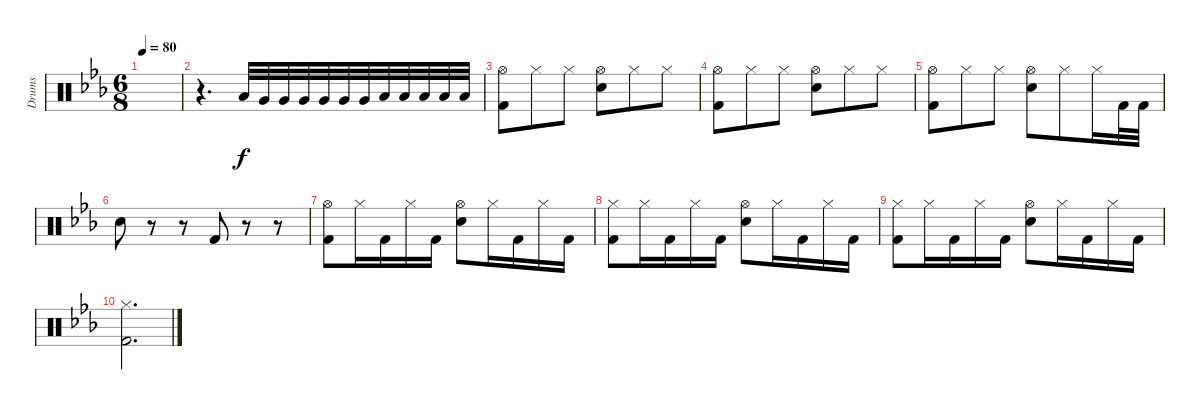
\track ("Drums" "Drums") {instrument percussion}
\staff {score}
\articulation defaults
\ts (6 8)
\tempo 80
\clef neutral
\ks cminor
|
r.4{d} "Low Tom (hit)".32 "Very Low Tom (hit)".32 "Very Low Tom (hit)".32 "Very Low Tom (hit)".32 "Very Low Tom (hit)".32 "Very Low Tom (hit)".32 "Very Low Tom (hit)".32 "Low Tom (hit)".32 "Low Tom (hit)".32 "Low Tom (hit)".32 "Low Tom (hit)".32 "Low Tom (hit)".32 |
("Hi-Hat (open)" "Kick (hit) 2").8 "Hi-Hat (closed)".8 "Hi-Hat (closed)".8 ("Hi-Hat (open)" "Snare (hit) 2").8 "Hi-Hat (closed)".8 "Hi-Hat (closed)".8 |
("Hi-Hat (open)" "Kick (hit) 2").8 "Hi-Hat (closed)".8 "Hi-Hat (closed)".8 ("Hi-Hat (open)" "Snare (hit) 2").8 "Hi-Hat (closed)".8 "Hi-Hat (closed)".8 |
("Hi-Hat (open)" "Kick (hit) 2").8 "Hi-Hat (closed)".8 "Hi-Hat (closed)".8 ("Hi-Hat (open)" "Snare (hit) 2").8 "Hi-Hat (closed)".8 "Hi-Hat (closed)".16 "Kick (hit) 2".32 "Kick (hit) 2".32 |
"Snare (hit) 2".8 r.8 r.8 "Kick (hit) 2".8 r.8 r.8 |
("Hi-Hat (open)" "Kick (hit) 2").8 "Hi-Hat (closed)".16 "Kick (hit) 2".16 "Hi-Hat (closed)".16 "Kick (hit) 2".16 ("Hi-Hat (open)" "Snare (hit) 2").8 "Hi-Hat (closed)".16 "Kick (hit) 2".16 "Hi-Hat (closed)".16 "Kick (hit) 2".16 |
("Hi-Hat (closed)" "Kick (hit) 2").8 "Hi-Hat (closed)".16 "Kick (hit) 2".16 "Hi-Hat (closed)".16 "Kick (hit) 2".16 ("Hi-Hat (open)" "Snare (hit) 2").8 "Hi-Hat (closed)".16 "Kick (hit) 2".16 "Hi-Hat (closed)".16 "Kick (hit) 2".16 |
("Hi-Hat (closed)" "Kick (hit) 2").8 "Hi-Hat (closed)".16 "Kick (hit) 2".16 "Hi-Hat (closed)".16 "Kick (hit) 2".16 ("Hi-Hat (open)" "Snare (hit) 2").8 "Hi-Hat (closed)".16 "Kick (hit) 2".16 "Hi-Hat (closed)".16 "Kick (hit) 2".16 |
("Hi-Hat (closed)" "Kick (hit) 2").2{d}
